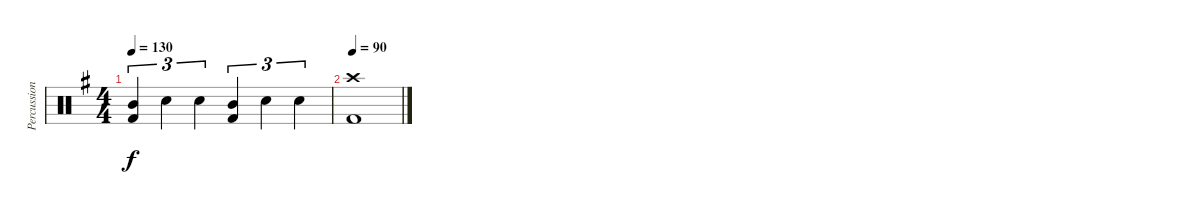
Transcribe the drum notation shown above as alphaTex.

\track ("Percussion" "Percussion") {instrument percussion}
\staff {score}
\articulation defaults
\ts (4 4)
\tempo 130
\clef neutral
\ks g
("Mid Tom (hit)" "Kick (hit) 2").4{tu (3 2) dy f} "Snare (hit) 2".4{tu (3 2)} "Snare (hit) 2".4{tu (3 2)} ("Mid Tom (hit)" "Kick (hit) 2").4{tu (3 2)} "Snare (hit) 2".4{tu (3 2)} "Snare (hit) 2".4{tu (3 2)} |
\tempo 90
("Crash high (hit)" "Kick (hit) 2").1
